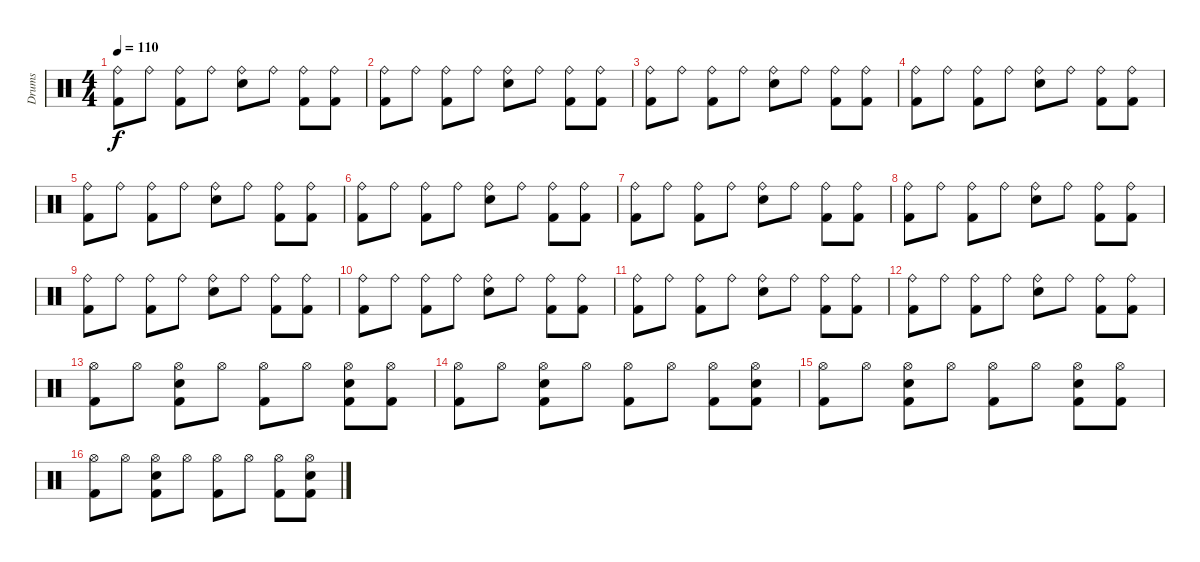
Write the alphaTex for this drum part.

\track ("Drums" "Drums") {instrument percussion}
\staff {score}
\articulation defaults
\ts (4 4)
\tempo 110
\clef neutral
\ks c
("Ride (bell)" "Kick (hit) 2").8{dy f} "Ride (bell)".8 ("Ride (bell)" "Kick (hit) 2").8 "Ride (bell)".8 ("Ride (bell)" "Electric Snare (hit)").8 "Ride (bell)".8 ("Ride (bell)" "Kick (hit) 2").8 ("Ride (bell)" "Kick (hit) 2").8 |
("Ride (bell)" "Kick (hit) 2").8 "Ride (bell)".8 ("Ride (bell)" "Kick (hit) 2").8 "Ride (bell)".8 ("Ride (bell)" "Electric Snare (hit)").8 "Ride (bell)".8 ("Ride (bell)" "Kick (hit) 2").8 ("Ride (bell)" "Kick (hit) 2").8 |
("Ride (bell)" "Kick (hit) 2").8 "Ride (bell)".8 ("Ride (bell)" "Kick (hit) 2").8 "Ride (bell)".8 ("Ride (bell)" "Electric Snare (hit)").8 "Ride (bell)".8 ("Ride (bell)" "Kick (hit) 2").8 ("Ride (bell)" "Kick (hit) 2").8 |
("Ride (bell)" "Kick (hit) 2").8 "Ride (bell)".8 ("Ride (bell)" "Kick (hit) 2").8 "Ride (bell)".8 ("Ride (bell)" "Electric Snare (hit)").8 "Ride (bell)".8 ("Ride (bell)" "Kick (hit) 2").8 ("Ride (bell)" "Kick (hit) 2").8 |
("Ride (bell)" "Kick (hit) 2").8 "Ride (bell)".8 ("Ride (bell)" "Kick (hit) 2").8 "Ride (bell)".8 ("Ride (bell)" "Electric Snare (hit)").8 "Ride (bell)".8 ("Ride (bell)" "Kick (hit) 2").8 ("Ride (bell)" "Kick (hit) 2").8 |
("Ride (bell)" "Kick (hit) 2").8 "Ride (bell)".8 ("Ride (bell)" "Kick (hit) 2").8 "Ride (bell)".8 ("Ride (bell)" "Electric Snare (hit)").8 "Ride (bell)".8 ("Ride (bell)" "Kick (hit) 2").8 ("Ride (bell)" "Kick (hit) 2").8 |
("Ride (bell)" "Kick (hit) 2").8 "Ride (bell)".8 ("Ride (bell)" "Kick (hit) 2").8 "Ride (bell)".8 ("Ride (bell)" "Electric Snare (hit)").8 "Ride (bell)".8 ("Ride (bell)" "Kick (hit) 2").8 ("Ride (bell)" "Kick (hit) 2").8 |
("Ride (bell)" "Kick (hit) 2").8 "Ride (bell)".8 ("Ride (bell)" "Kick (hit) 2").8 "Ride (bell)".8 ("Ride (bell)" "Electric Snare (hit)").8 "Ride (bell)".8 ("Ride (bell)" "Kick (hit) 2").8 ("Ride (bell)" "Kick (hit) 2").8 |
("Ride (bell)" "Kick (hit) 2").8 "Ride (bell)".8 ("Ride (bell)" "Kick (hit) 2").8 "Ride (bell)".8 ("Ride (bell)" "Electric Snare (hit)").8 "Ride (bell)".8 ("Ride (bell)" "Kick (hit) 2").8 ("Ride (bell)" "Kick (hit) 2").8 |
("Ride (bell)" "Kick (hit) 2").8 "Ride (bell)".8 ("Ride (bell)" "Kick (hit) 2").8 "Ride (bell)".8 ("Ride (bell)" "Electric Snare (hit)").8 "Ride (bell)".8 ("Ride (bell)" "Kick (hit) 2").8 ("Ride (bell)" "Kick (hit) 2").8 |
("Ride (bell)" "Kick (hit) 2").8 "Ride (bell)".8 ("Ride (bell)" "Kick (hit) 2").8 "Ride (bell)".8 ("Ride (bell)" "Electric Snare (hit)").8 "Ride (bell)".8 ("Ride (bell)" "Kick (hit) 2").8 ("Ride (bell)" "Kick (hit) 2").8 |
("Ride (bell)" "Kick (hit) 2").8 "Ride (bell)".8 ("Ride (bell)" "Kick (hit) 2").8 "Ride (bell)".8 ("Ride (bell)" "Electric Snare (hit)").8 "Ride (bell)".8 ("Ride (bell)" "Kick (hit) 2").8 ("Ride (bell)" "Kick (hit) 2").8 |
("Hi-Hat (open)" "Kick (hit) 2").8 "Hi-Hat (open)".8 ("Hi-Hat (open)" "Electric Snare (hit)" "Kick (hit) 2").8 "Hi-Hat (open)".8 ("Hi-Hat (open)" "Kick (hit) 2").8 "Hi-Hat (open)".8 ("Hi-Hat (open)" "Electric Snare (hit)" "Kick (hit) 2").8 ("Hi-Hat (open)" "Kick (hit) 2").8 |
("Hi-Hat (open)" "Kick (hit) 2").8 "Hi-Hat (open)".8 ("Hi-Hat (open)" "Electric Snare (hit)" "Kick (hit) 2").8 "Hi-Hat (open)".8 ("Hi-Hat (open)" "Kick (hit) 2").8 "Hi-Hat (open)".8 ("Hi-Hat (open)" "Kick (hit) 2").8 ("Hi-Hat (open)" "Electric Snare (hit)" "Kick (hit) 2").8 |
("Hi-Hat (open)" "Kick (hit) 2").8 "Hi-Hat (open)".8 ("Hi-Hat (open)" "Electric Snare (hit)" "Kick (hit) 2").8 "Hi-Hat (open)".8 ("Hi-Hat (open)" "Kick (hit) 2").8 "Hi-Hat (open)".8 ("Hi-Hat (open)" "Electric Snare (hit)" "Kick (hit) 2").8 ("Hi-Hat (open)" "Kick (hit) 2").8 |
("Hi-Hat (open)" "Kick (hit) 2").8 "Hi-Hat (open)".8 ("Hi-Hat (open)" "Electric Snare (hit)" "Kick (hit) 2").8 "Hi-Hat (open)".8 ("Hi-Hat (open)" "Kick (hit) 2").8 "Hi-Hat (open)".8 ("Hi-Hat (open)" "Kick (hit) 2").8 ("Hi-Hat (open)" "Electric Snare (hit)" "Kick (hit) 2").8
